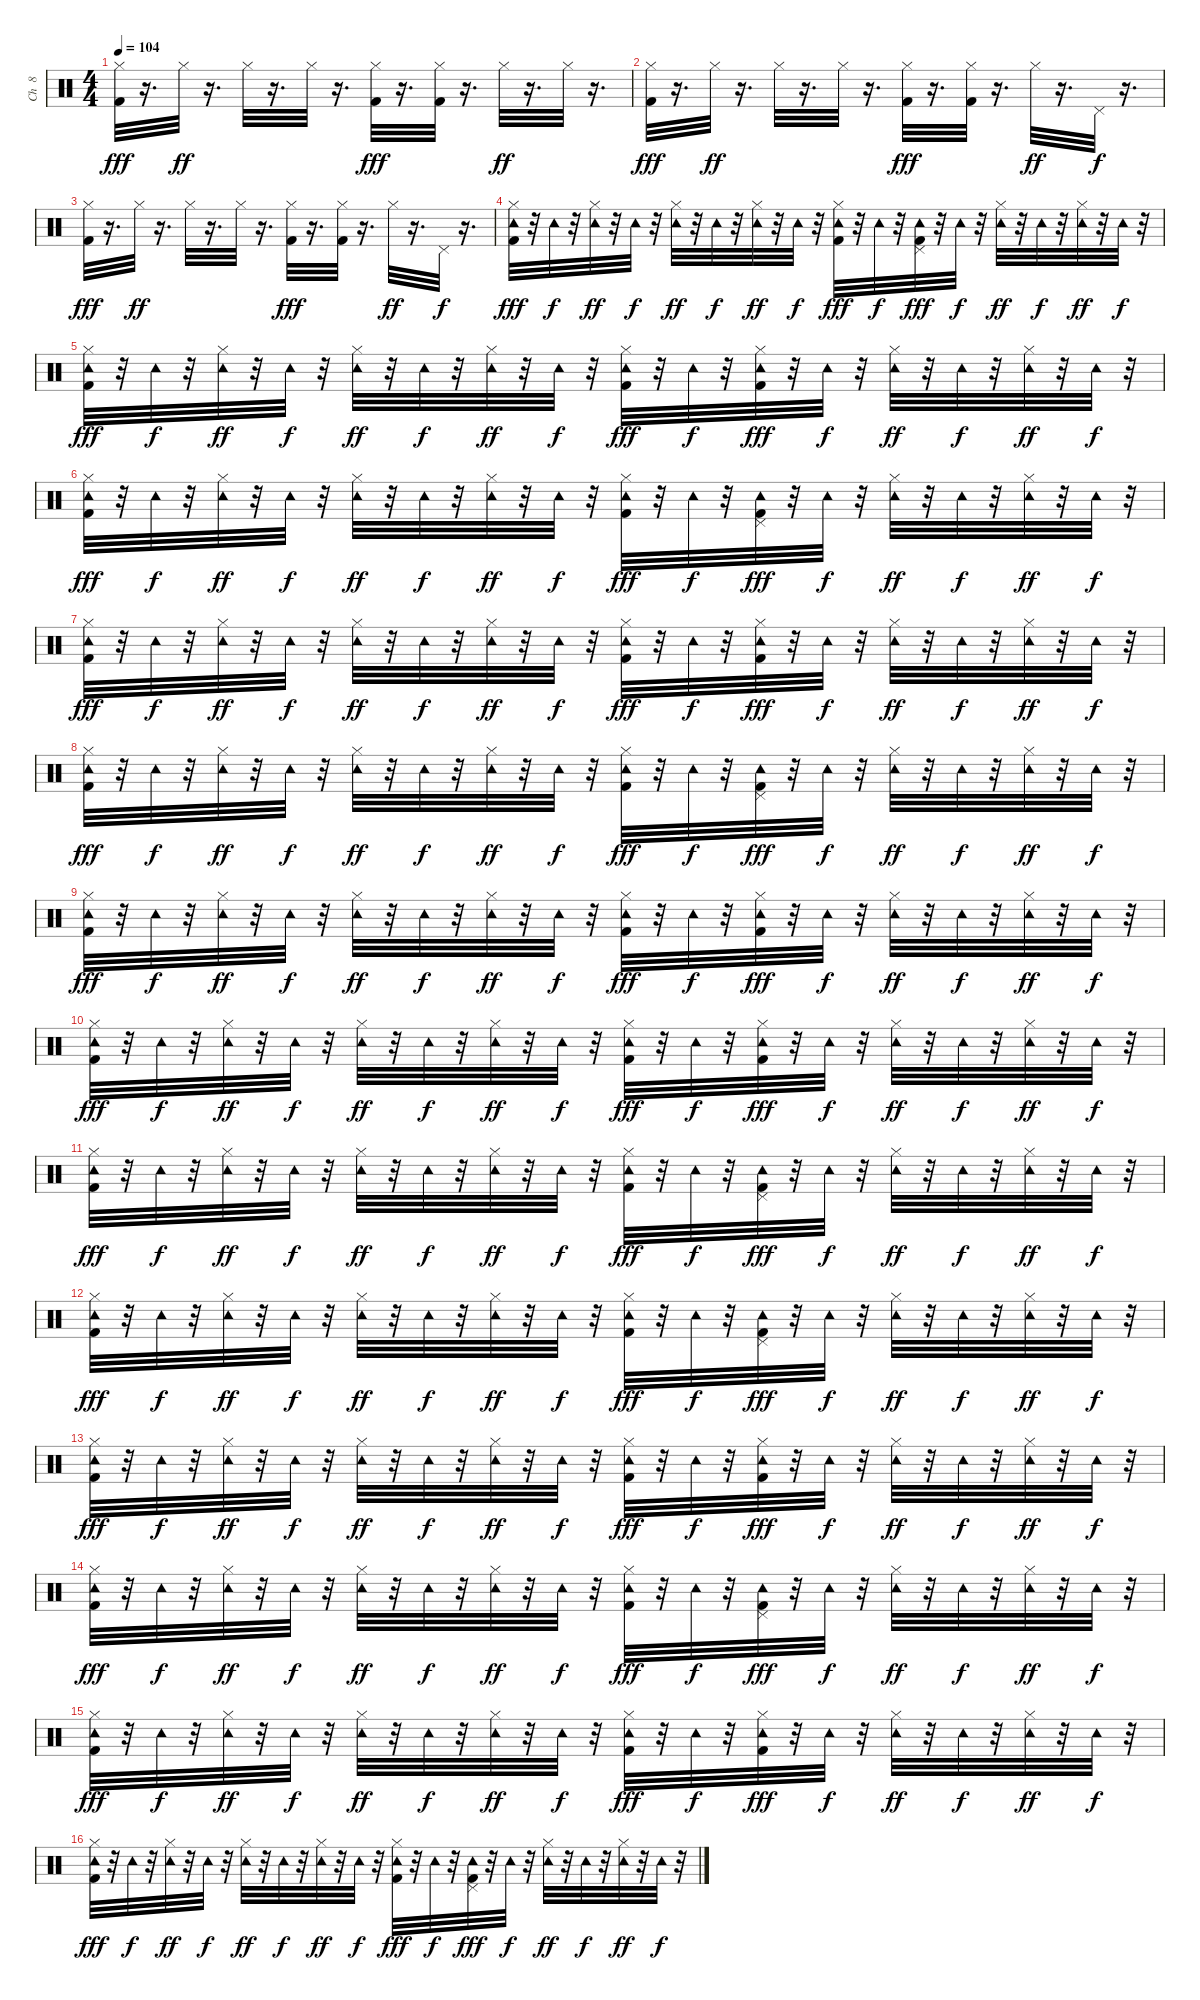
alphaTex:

\track ("Ch  8   " "Ch  8   ") {instrument percussion}
\staff {score}
\articulation defaults
\ts (4 4)
\tempo 104
\clef neutral
\ks c
("Hi-Hat (closed)" "Kick (hit) 2").32{dy fff} r.16{d} "Hi-Hat (closed)".32{dy ff} r.16{d} "Hi-Hat (closed)".32 r.16{d} "Hi-Hat (closed)".32 r.16{d} ("Hi-Hat (closed)" "Kick (hit) 2").32{dy fff} r.16{d} ("Hi-Hat (closed)" "Kick (hit) 2").32 r.16{d} "Hi-Hat (closed)".32{dy ff} r.16{d} "Hi-Hat (closed)".32 r.16{d} |
("Hi-Hat (closed)" "Kick (hit) 2").32{dy fff} r.16{d} "Hi-Hat (closed)".32{dy ff} r.16{d} "Hi-Hat (closed)".32 r.16{d} "Hi-Hat (closed)".32 r.16{d} ("Hi-Hat (closed)" "Kick (hit) 2").32{dy fff} r.16{d} ("Hi-Hat (closed)" "Kick (hit) 2").32 r.16{d} "Hi-Hat (closed)".32{dy ff} r.16{d} "Pedal Hi-Hat (hit)".32{dy f} r.16{d} |
("Hi-Hat (closed)" "Kick (hit) 2").32{dy fff} r.16{d} "Hi-Hat (closed)".32{dy ff} r.16{d} "Hi-Hat (closed)".32 r.16{d} "Hi-Hat (closed)".32 r.16{d} ("Hi-Hat (closed)" "Kick (hit) 2").32{dy fff} r.16{d} ("Hi-Hat (closed)" "Kick (hit) 2").32 r.16{d} "Hi-Hat (closed)".32{dy ff} r.16{d} "Pedal Hi-Hat (hit)".32{dy f} r.16{d} |
("Tambourine (hit)" "Hi-Hat (closed)" "Kick (hit) 2").32{dy fff} r.32 "Tambourine (hit)".32{dy f} r.32 ("Tambourine (hit)" "Hi-Hat (closed)").32{dy ff} r.32 "Tambourine (hit)".32{dy f} r.32 ("Tambourine (hit)" "Hi-Hat (closed)").32{dy ff} r.32 "Tambourine (hit)".32{dy f} r.32 ("Tambourine (hit)" "Hi-Hat (closed)").32{dy ff} r.32 "Tambourine (hit)".32{dy f} r.32 ("Tambourine (hit)" "Hi-Hat (closed)" "Kick (hit) 2").32{dy fff} r.32 "Tambourine (hit)".32{dy f} r.32 ("Pedal Hi-Hat (hit)" "Tambourine (hit)" "Kick (hit) 2").32{dy fff} r.32 "Tambourine (hit)".32{dy f} r.32 ("Tambourine (hit)" "Hi-Hat (closed)").32{dy ff} r.32 "Tambourine (hit)".32{dy f} r.32 ("Tambourine (hit)" "Hi-Hat (closed)").32{dy ff} r.32 "Tambourine (hit)".32{dy f} r.32 |
("Tambourine (hit)" "Hi-Hat (closed)" "Kick (hit) 2").32{dy fff} r.32 "Tambourine (hit)".32{dy f} r.32 ("Tambourine (hit)" "Hi-Hat (closed)").32{dy ff} r.32 "Tambourine (hit)".32{dy f} r.32 ("Tambourine (hit)" "Hi-Hat (closed)").32{dy ff} r.32 "Tambourine (hit)".32{dy f} r.32 ("Tambourine (hit)" "Hi-Hat (closed)").32{dy ff} r.32 "Tambourine (hit)".32{dy f} r.32 ("Tambourine (hit)" "Hi-Hat (closed)" "Kick (hit) 2").32{dy fff} r.32 "Tambourine (hit)".32{dy f} r.32 ("Tambourine (hit)" "Hi-Hat (closed)" "Kick (hit) 2").32{dy fff} r.32 "Tambourine (hit)".32{dy f} r.32 ("Tambourine (hit)" "Hi-Hat (closed)").32{dy ff} r.32 "Tambourine (hit)".32{dy f} r.32 ("Tambourine (hit)" "Hi-Hat (closed)").32{dy ff} r.32 "Tambourine (hit)".32{dy f} r.32 |
("Tambourine (hit)" "Hi-Hat (closed)" "Kick (hit) 2").32{dy fff} r.32 "Tambourine (hit)".32{dy f} r.32 ("Tambourine (hit)" "Hi-Hat (closed)").32{dy ff} r.32 "Tambourine (hit)".32{dy f} r.32 ("Tambourine (hit)" "Hi-Hat (closed)").32{dy ff} r.32 "Tambourine (hit)".32{dy f} r.32 ("Tambourine (hit)" "Hi-Hat (closed)").32{dy ff} r.32 "Tambourine (hit)".32{dy f} r.32 ("Tambourine (hit)" "Hi-Hat (closed)" "Kick (hit) 2").32{dy fff} r.32 "Tambourine (hit)".32{dy f} r.32 ("Pedal Hi-Hat (hit)" "Tambourine (hit)" "Kick (hit) 2").32{dy fff} r.32 "Tambourine (hit)".32{dy f} r.32 ("Tambourine (hit)" "Hi-Hat (closed)").32{dy ff} r.32 "Tambourine (hit)".32{dy f} r.32 ("Tambourine (hit)" "Hi-Hat (closed)").32{dy ff} r.32 "Tambourine (hit)".32{dy f} r.32 |
("Tambourine (hit)" "Hi-Hat (closed)" "Kick (hit) 2").32{dy fff} r.32 "Tambourine (hit)".32{dy f} r.32 ("Tambourine (hit)" "Hi-Hat (closed)").32{dy ff} r.32 "Tambourine (hit)".32{dy f} r.32 ("Tambourine (hit)" "Hi-Hat (closed)").32{dy ff} r.32 "Tambourine (hit)".32{dy f} r.32 ("Tambourine (hit)" "Hi-Hat (closed)").32{dy ff} r.32 "Tambourine (hit)".32{dy f} r.32 ("Tambourine (hit)" "Hi-Hat (closed)" "Kick (hit) 2").32{dy fff} r.32 "Tambourine (hit)".32{dy f} r.32 ("Tambourine (hit)" "Hi-Hat (closed)" "Kick (hit) 2").32{dy fff} r.32 "Tambourine (hit)".32{dy f} r.32 ("Tambourine (hit)" "Hi-Hat (closed)").32{dy ff} r.32 "Tambourine (hit)".32{dy f} r.32 ("Tambourine (hit)" "Hi-Hat (closed)").32{dy ff} r.32 "Tambourine (hit)".32{dy f} r.32 |
("Tambourine (hit)" "Hi-Hat (closed)" "Kick (hit) 2").32{dy fff} r.32 "Tambourine (hit)".32{dy f} r.32 ("Tambourine (hit)" "Hi-Hat (closed)").32{dy ff} r.32 "Tambourine (hit)".32{dy f} r.32 ("Tambourine (hit)" "Hi-Hat (closed)").32{dy ff} r.32 "Tambourine (hit)".32{dy f} r.32 ("Tambourine (hit)" "Hi-Hat (closed)").32{dy ff} r.32 "Tambourine (hit)".32{dy f} r.32 ("Tambourine (hit)" "Hi-Hat (closed)" "Kick (hit) 2").32{dy fff} r.32 "Tambourine (hit)".32{dy f} r.32 ("Pedal Hi-Hat (hit)" "Tambourine (hit)" "Kick (hit) 2").32{dy fff} r.32 "Tambourine (hit)".32{dy f} r.32 ("Tambourine (hit)" "Hi-Hat (closed)").32{dy ff} r.32 "Tambourine (hit)".32{dy f} r.32 ("Tambourine (hit)" "Hi-Hat (closed)").32{dy ff} r.32 "Tambourine (hit)".32{dy f} r.32 |
("Tambourine (hit)" "Hi-Hat (closed)" "Kick (hit) 2").32{dy fff} r.32 "Tambourine (hit)".32{dy f} r.32 ("Tambourine (hit)" "Hi-Hat (closed)").32{dy ff} r.32 "Tambourine (hit)".32{dy f} r.32 ("Tambourine (hit)" "Hi-Hat (closed)").32{dy ff} r.32 "Tambourine (hit)".32{dy f} r.32 ("Tambourine (hit)" "Hi-Hat (closed)").32{dy ff} r.32 "Tambourine (hit)".32{dy f} r.32 ("Tambourine (hit)" "Hi-Hat (closed)" "Kick (hit) 2").32{dy fff} r.32 "Tambourine (hit)".32{dy f} r.32 ("Tambourine (hit)" "Hi-Hat (closed)" "Kick (hit) 2").32{dy fff} r.32 "Tambourine (hit)".32{dy f} r.32 ("Tambourine (hit)" "Hi-Hat (closed)").32{dy ff} r.32 "Tambourine (hit)".32{dy f} r.32 ("Tambourine (hit)" "Hi-Hat (closed)").32{dy ff} r.32 "Tambourine (hit)".32{dy f} r.32 |
("Tambourine (hit)" "Hi-Hat (closed)" "Kick (hit) 2").32{dy fff} r.32 "Tambourine (hit)".32{dy f} r.32 ("Tambourine (hit)" "Hi-Hat (closed)").32{dy ff} r.32 "Tambourine (hit)".32{dy f} r.32 ("Tambourine (hit)" "Hi-Hat (closed)").32{dy ff} r.32 "Tambourine (hit)".32{dy f} r.32 ("Tambourine (hit)" "Hi-Hat (closed)").32{dy ff} r.32 "Tambourine (hit)".32{dy f} r.32 ("Tambourine (hit)" "Hi-Hat (closed)" "Kick (hit) 2").32{dy fff} r.32 "Tambourine (hit)".32{dy f} r.32 ("Tambourine (hit)" "Hi-Hat (closed)" "Kick (hit) 2").32{dy fff} r.32 "Tambourine (hit)".32{dy f} r.32 ("Tambourine (hit)" "Hi-Hat (closed)").32{dy ff} r.32 "Tambourine (hit)".32{dy f} r.32 ("Tambourine (hit)" "Hi-Hat (closed)").32{dy ff} r.32 "Tambourine (hit)".32{dy f} r.32 |
("Tambourine (hit)" "Hi-Hat (closed)" "Kick (hit) 2").32{dy fff} r.32 "Tambourine (hit)".32{dy f} r.32 ("Tambourine (hit)" "Hi-Hat (closed)").32{dy ff} r.32 "Tambourine (hit)".32{dy f} r.32 ("Tambourine (hit)" "Hi-Hat (closed)").32{dy ff} r.32 "Tambourine (hit)".32{dy f} r.32 ("Tambourine (hit)" "Hi-Hat (closed)").32{dy ff} r.32 "Tambourine (hit)".32{dy f} r.32 ("Tambourine (hit)" "Hi-Hat (closed)" "Kick (hit) 2").32{dy fff} r.32 "Tambourine (hit)".32{dy f} r.32 ("Pedal Hi-Hat (hit)" "Tambourine (hit)" "Kick (hit) 2").32{dy fff} r.32 "Tambourine (hit)".32{dy f} r.32 ("Tambourine (hit)" "Hi-Hat (closed)").32{dy ff} r.32 "Tambourine (hit)".32{dy f} r.32 ("Tambourine (hit)" "Hi-Hat (closed)").32{dy ff} r.32 "Tambourine (hit)".32{dy f} r.32 |
("Tambourine (hit)" "Hi-Hat (closed)" "Kick (hit) 2").32{dy fff} r.32 "Tambourine (hit)".32{dy f} r.32 ("Tambourine (hit)" "Hi-Hat (closed)").32{dy ff} r.32 "Tambourine (hit)".32{dy f} r.32 ("Tambourine (hit)" "Hi-Hat (closed)").32{dy ff} r.32 "Tambourine (hit)".32{dy f} r.32 ("Tambourine (hit)" "Hi-Hat (closed)").32{dy ff} r.32 "Tambourine (hit)".32{dy f} r.32 ("Tambourine (hit)" "Hi-Hat (closed)" "Kick (hit) 2").32{dy fff} r.32 "Tambourine (hit)".32{dy f} r.32 ("Pedal Hi-Hat (hit)" "Tambourine (hit)" "Kick (hit) 2").32{dy fff} r.32 "Tambourine (hit)".32{dy f} r.32 ("Tambourine (hit)" "Hi-Hat (closed)").32{dy ff} r.32 "Tambourine (hit)".32{dy f} r.32 ("Tambourine (hit)" "Hi-Hat (closed)").32{dy ff} r.32 "Tambourine (hit)".32{dy f} r.32 |
("Tambourine (hit)" "Hi-Hat (closed)" "Kick (hit) 2").32{dy fff} r.32 "Tambourine (hit)".32{dy f} r.32 ("Tambourine (hit)" "Hi-Hat (closed)").32{dy ff} r.32 "Tambourine (hit)".32{dy f} r.32 ("Tambourine (hit)" "Hi-Hat (closed)").32{dy ff} r.32 "Tambourine (hit)".32{dy f} r.32 ("Tambourine (hit)" "Hi-Hat (closed)").32{dy ff} r.32 "Tambourine (hit)".32{dy f} r.32 ("Tambourine (hit)" "Hi-Hat (closed)" "Kick (hit) 2").32{dy fff} r.32 "Tambourine (hit)".32{dy f} r.32 ("Tambourine (hit)" "Hi-Hat (closed)" "Kick (hit) 2").32{dy fff} r.32 "Tambourine (hit)".32{dy f} r.32 ("Tambourine (hit)" "Hi-Hat (closed)").32{dy ff} r.32 "Tambourine (hit)".32{dy f} r.32 ("Tambourine (hit)" "Hi-Hat (closed)").32{dy ff} r.32 "Tambourine (hit)".32{dy f} r.32 |
("Tambourine (hit)" "Hi-Hat (closed)" "Kick (hit) 2").32{dy fff} r.32 "Tambourine (hit)".32{dy f} r.32 ("Tambourine (hit)" "Hi-Hat (closed)").32{dy ff} r.32 "Tambourine (hit)".32{dy f} r.32 ("Tambourine (hit)" "Hi-Hat (closed)").32{dy ff} r.32 "Tambourine (hit)".32{dy f} r.32 ("Tambourine (hit)" "Hi-Hat (closed)").32{dy ff} r.32 "Tambourine (hit)".32{dy f} r.32 ("Tambourine (hit)" "Hi-Hat (closed)" "Kick (hit) 2").32{dy fff} r.32 "Tambourine (hit)".32{dy f} r.32 ("Pedal Hi-Hat (hit)" "Tambourine (hit)" "Kick (hit) 2").32{dy fff} r.32 "Tambourine (hit)".32{dy f} r.32 ("Tambourine (hit)" "Hi-Hat (closed)").32{dy ff} r.32 "Tambourine (hit)".32{dy f} r.32 ("Tambourine (hit)" "Hi-Hat (closed)").32{dy ff} r.32 "Tambourine (hit)".32{dy f} r.32 |
("Tambourine (hit)" "Hi-Hat (closed)" "Kick (hit) 2").32{dy fff} r.32 "Tambourine (hit)".32{dy f} r.32 ("Tambourine (hit)" "Hi-Hat (closed)").32{dy ff} r.32 "Tambourine (hit)".32{dy f} r.32 ("Tambourine (hit)" "Hi-Hat (closed)").32{dy ff} r.32 "Tambourine (hit)".32{dy f} r.32 ("Tambourine (hit)" "Hi-Hat (closed)").32{dy ff} r.32 "Tambourine (hit)".32{dy f} r.32 ("Tambourine (hit)" "Hi-Hat (closed)" "Kick (hit) 2").32{dy fff} r.32 "Tambourine (hit)".32{dy f} r.32 ("Tambourine (hit)" "Hi-Hat (closed)" "Kick (hit) 2").32{dy fff} r.32 "Tambourine (hit)".32{dy f} r.32 ("Tambourine (hit)" "Hi-Hat (closed)").32{dy ff} r.32 "Tambourine (hit)".32{dy f} r.32 ("Tambourine (hit)" "Hi-Hat (closed)").32{dy ff} r.32 "Tambourine (hit)".32{dy f} r.32 |
("Tambourine (hit)" "Hi-Hat (closed)" "Kick (hit) 2").32{dy fff} r.32 "Tambourine (hit)".32{dy f} r.32 ("Tambourine (hit)" "Hi-Hat (closed)").32{dy ff} r.32 "Tambourine (hit)".32{dy f} r.32 ("Tambourine (hit)" "Hi-Hat (closed)").32{dy ff} r.32 "Tambourine (hit)".32{dy f} r.32 ("Tambourine (hit)" "Hi-Hat (closed)").32{dy ff} r.32 "Tambourine (hit)".32{dy f} r.32 ("Tambourine (hit)" "Hi-Hat (closed)" "Kick (hit) 2").32{dy fff} r.32 "Tambourine (hit)".32{dy f} r.32 ("Pedal Hi-Hat (hit)" "Tambourine (hit)" "Kick (hit) 2").32{dy fff} r.32 "Tambourine (hit)".32{dy f} r.32 ("Tambourine (hit)" "Hi-Hat (closed)").32{dy ff} r.32 "Tambourine (hit)".32{dy f} r.32 ("Tambourine (hit)" "Hi-Hat (closed)").32{dy ff} r.32 "Tambourine (hit)".32{dy f} r.32
